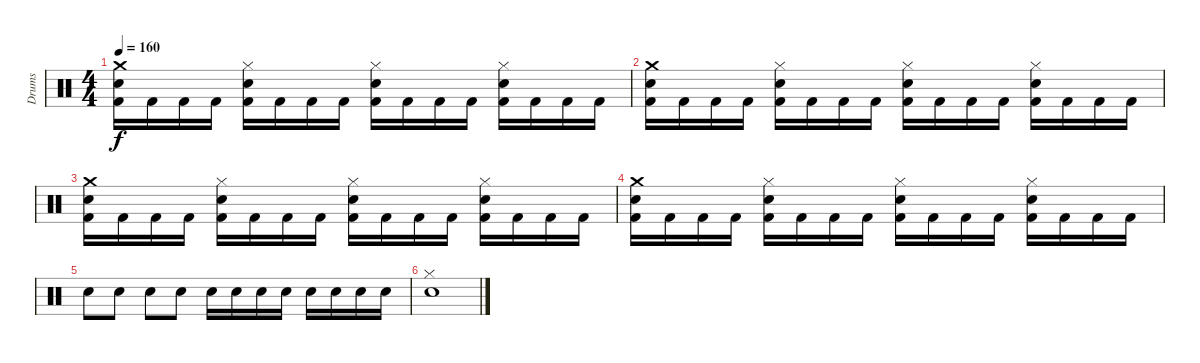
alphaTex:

\track ("Drums" "Drums") {instrument percussion}
\staff {score}
\articulation defaults
\ts (4 4)
\tempo 160
\clef neutral
\ks c
("Crash medium (hit)" "Snare (hit) 2" "Kick (hit) 2").16{dy f} "Kick (hit) 2".16 "Kick (hit) 2".16 "Kick (hit) 2".16 ("Hi-Hat (closed)" "Snare (hit) 2" "Kick (hit) 2").16 "Kick (hit) 2".16 "Kick (hit) 2".16 "Kick (hit) 2".16 ("Hi-Hat (closed)" "Snare (hit) 2" "Kick (hit) 2").16 "Kick (hit) 2".16 "Kick (hit) 2".16 "Kick (hit) 2".16 ("Hi-Hat (closed)" "Snare (hit) 2" "Kick (hit) 2").16 "Kick (hit) 2".16 "Kick (hit) 2".16 "Kick (hit) 2".16 |
("Crash medium (hit)" "Snare (hit) 2" "Kick (hit) 2").16 "Kick (hit) 2".16 "Kick (hit) 2".16 "Kick (hit) 2".16 ("Hi-Hat (closed)" "Snare (hit) 2" "Kick (hit) 2").16 "Kick (hit) 2".16 "Kick (hit) 2".16 "Kick (hit) 2".16 ("Hi-Hat (closed)" "Snare (hit) 2" "Kick (hit) 2").16 "Kick (hit) 2".16 "Kick (hit) 2".16 "Kick (hit) 2".16 ("Hi-Hat (closed)" "Snare (hit) 2" "Kick (hit) 2").16 "Kick (hit) 2".16 "Kick (hit) 2".16 "Kick (hit) 2".16 |
("Crash medium (hit)" "Snare (hit) 2" "Kick (hit) 2").16 "Kick (hit) 2".16 "Kick (hit) 2".16 "Kick (hit) 2".16 ("Hi-Hat (closed)" "Snare (hit) 2" "Kick (hit) 2").16 "Kick (hit) 2".16 "Kick (hit) 2".16 "Kick (hit) 2".16 ("Hi-Hat (closed)" "Snare (hit) 2" "Kick (hit) 2").16 "Kick (hit) 2".16 "Kick (hit) 2".16 "Kick (hit) 2".16 ("Hi-Hat (closed)" "Snare (hit) 2" "Kick (hit) 2").16 "Kick (hit) 2".16 "Kick (hit) 2".16 "Kick (hit) 2".16 |
("Crash medium (hit)" "Snare (hit) 2" "Kick (hit) 2").16 "Kick (hit) 2".16 "Kick (hit) 2".16 "Kick (hit) 2".16 ("Hi-Hat (closed)" "Snare (hit) 2" "Kick (hit) 2").16 "Kick (hit) 2".16 "Kick (hit) 2".16 "Kick (hit) 2".16 ("Hi-Hat (closed)" "Snare (hit) 2" "Kick (hit) 2").16 "Kick (hit) 2".16 "Kick (hit) 2".16 "Kick (hit) 2".16 ("Hi-Hat (closed)" "Snare (hit) 2" "Kick (hit) 2").16 "Kick (hit) 2".16 "Kick (hit) 2".16 "Kick (hit) 2".16 |
"Snare (hit) 2".8 "Snare (hit) 2".8 "Snare (hit) 2".8 "Snare (hit) 2".8 "Snare (hit) 2".16 "Snare (hit) 2".16 "Snare (hit) 2".16 "Snare (hit) 2".16 "Snare (hit) 2".16 "Snare (hit) 2".16 "Snare (hit) 2".16 "Snare (hit) 2".16 |
("Hi-Hat (closed)" "Snare (hit) 2").1
